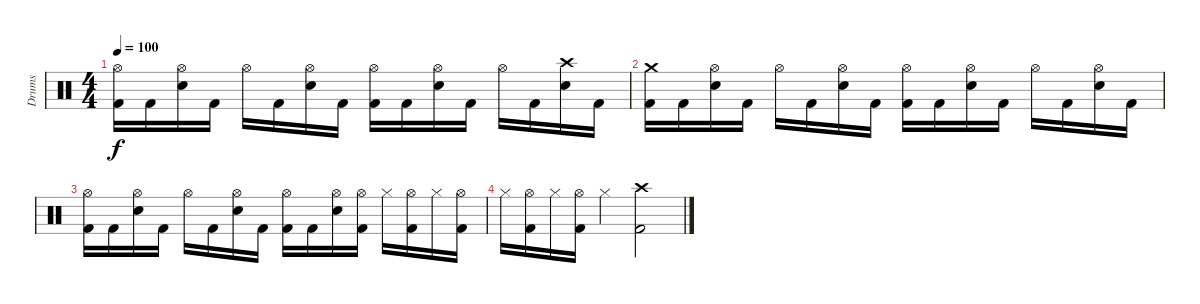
\track ("Drums" "Drums") {instrument percussion}
\staff {score}
\articulation defaults
\ts (4 4)
\tempo 100
\clef neutral
\ks c
("Hi-Hat (open)" "Kick (hit) 2").16{dy f} "Kick (hit) 2".16 ("Hi-Hat (open)" "Electric Snare (hit)").16 "Kick (hit) 2".16 "Hi-Hat (open)".16 "Kick (hit) 2".16 ("Hi-Hat (open)" "Electric Snare (hit)").16 "Kick (hit) 2".16 ("Hi-Hat (open)" "Kick (hit) 2").16 "Kick (hit) 2".16 ("Hi-Hat (open)" "Electric Snare (hit)").16 "Kick (hit) 2".16 "Hi-Hat (open)".16 "Kick (hit) 2".16 ("Crash high (hit)" "Electric Snare (hit)").16 "Kick (hit) 2".16 |
("Crash medium (hit)" "Kick (hit) 2").16 "Kick (hit) 2".16 ("Hi-Hat (open)" "Electric Snare (hit)").16 "Kick (hit) 2".16 "Hi-Hat (open)".16 "Kick (hit) 2".16 ("Hi-Hat (open)" "Electric Snare (hit)").16 "Kick (hit) 2".16 ("Hi-Hat (open)" "Kick (hit) 2").16 "Kick (hit) 2".16 ("Hi-Hat (open)" "Electric Snare (hit)").16 "Kick (hit) 2".16 "Hi-Hat (open)".16 "Kick (hit) 2".16 ("Hi-Hat (open)" "Electric Snare (hit)").16 "Kick (hit) 2".16 |
("Hi-Hat (open)" "Kick (hit) 2").16 "Kick (hit) 2".16 ("Hi-Hat (open)" "Electric Snare (hit)").16 "Kick (hit) 2".16 "Hi-Hat (open)".16 "Kick (hit) 2".16 ("Hi-Hat (open)" "Electric Snare (hit)").16 "Kick (hit) 2".16 ("Hi-Hat (open)" "Kick (hit) 2").16 "Kick (hit) 2".16 ("Hi-Hat (open)" "Electric Snare (hit)").16 ("Hi-Hat (open)" "Kick (hit) 2").16 "Hi-Hat (closed)".16 ("Hi-Hat (open)" "Kick (hit) 2").16 "Hi-Hat (closed)".16 ("Hi-Hat (open)" "Kick (hit) 2").16 |
"Hi-Hat (closed)".16 ("Hi-Hat (open)" "Kick (hit) 2").16 "Hi-Hat (closed)".16 ("Hi-Hat (open)" "Kick (hit) 2").16 "Hi-Hat (closed)".4 ("Crash high (hit)" "Kick (hit) 2").2
